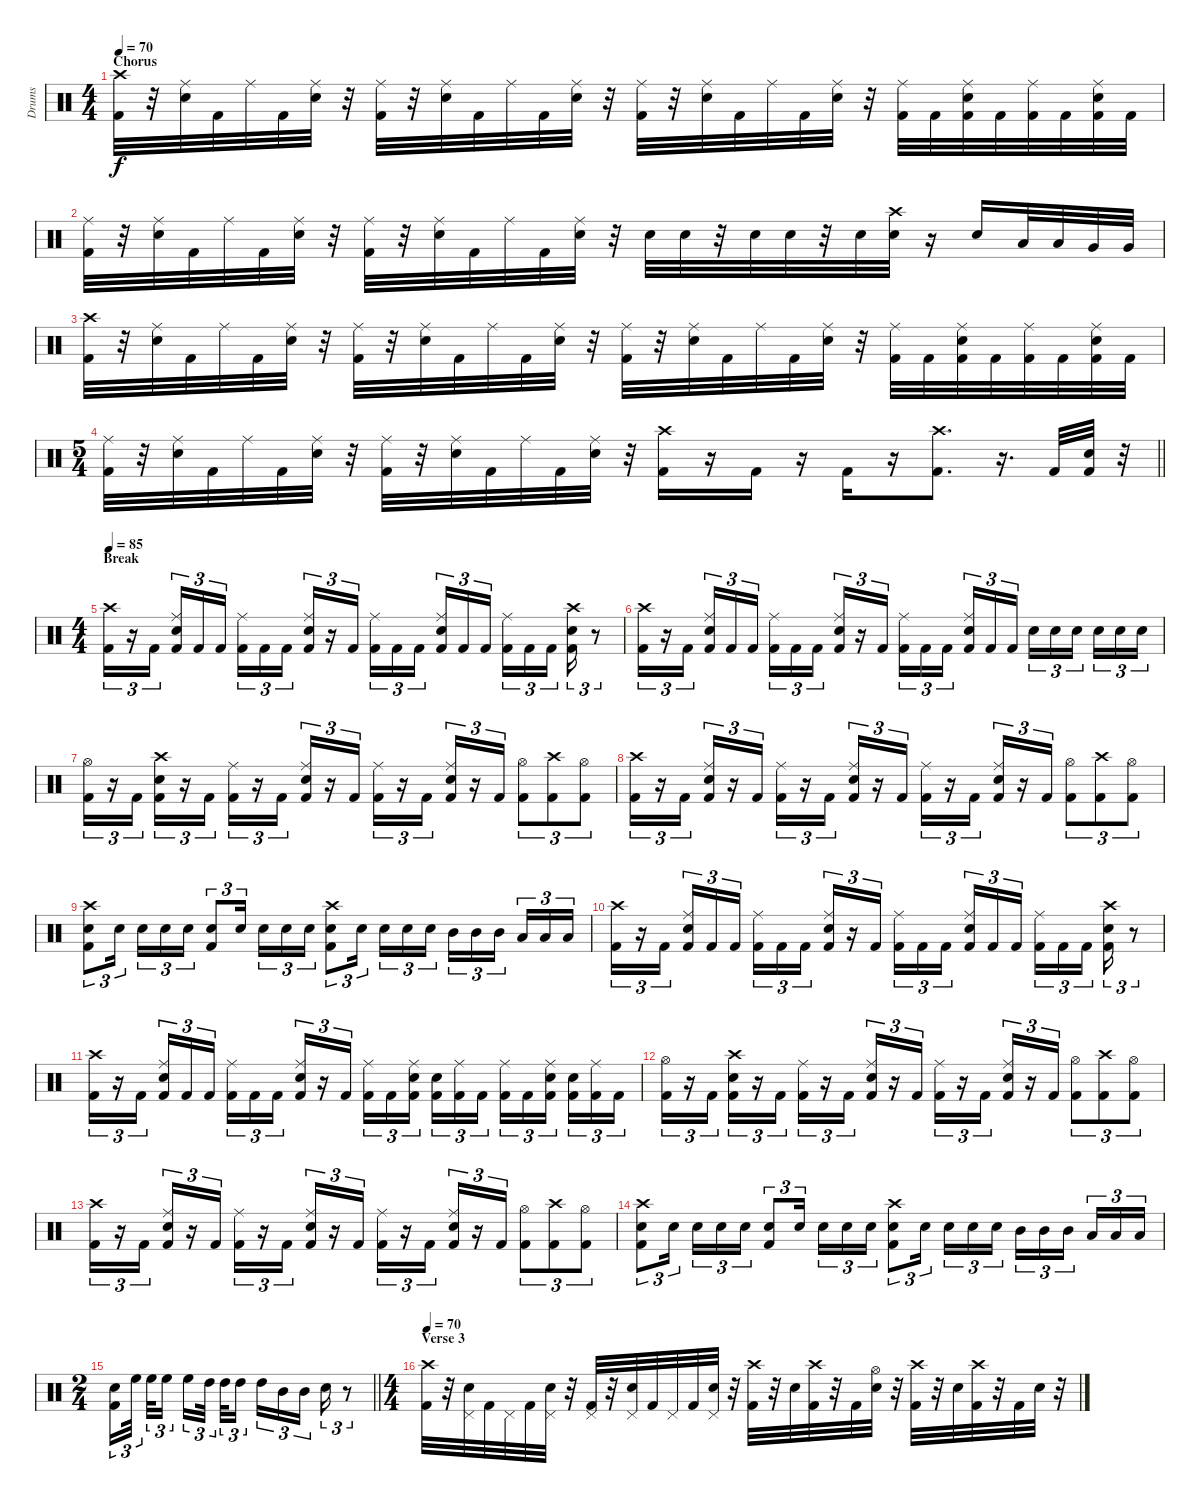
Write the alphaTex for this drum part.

\track ("Drums" "Drums") {instrument percussion}
\staff {score}
\articulation defaults
\ts (4 4)
\section ("" "Chorus")
\tempo 70
\clef neutral
\ks c
("Crash high (hit)" "Kick (hit) 2").32{dy f} r.32 ("Ride (middle)" "Snare (hit) 2").32 "Kick (hit) 2".32 "Ride (middle)".32 "Kick (hit) 2".32 ("Ride (middle)" "Snare (hit) 2").32 r.32 ("Ride (middle)" "Kick (hit) 2").32 r.32 ("Ride (middle)" "Snare (hit) 2").32 "Kick (hit) 2".32 "Ride (middle)".32 "Kick (hit) 2".32 ("Ride (middle)" "Snare (hit) 2").32 r.32 ("Ride (middle)" "Kick (hit) 2").32 r.32 ("Ride (middle)" "Snare (hit) 2").32 "Kick (hit) 2".32 "Ride (middle)".32 "Kick (hit) 2".32 ("Ride (middle)" "Snare (hit) 2").32 r.32 ("Ride (middle)" "Kick (hit) 2").32 "Kick (hit) 2".32 ("Ride (middle)" "Snare (hit) 2" "Kick (hit) 2").32 "Kick (hit) 2".32 ("Ride (middle)" "Kick (hit) 2").32 "Kick (hit) 2".32 ("Ride (middle)" "Snare (hit) 2" "Kick (hit) 2").32 "Kick (hit) 2".32 |
("Ride (middle)" "Kick (hit) 2").32 r.32 ("Ride (middle)" "Snare (hit) 2").32 "Kick (hit) 2".32 "Ride (middle)".32 "Kick (hit) 2".32 ("Ride (middle)" "Snare (hit) 2").32 r.32 ("Ride (middle)" "Kick (hit) 2").32 r.32 ("Ride (middle)" "Snare (hit) 2").32 "Kick (hit) 2".32 "Ride (middle)".32 "Kick (hit) 2".32 ("Ride (middle)" "Snare (hit) 2").32 r.32 "Snare (hit) 2".32 "Snare (hit) 2".32 r.32 "Snare (hit) 2".32 "Snare (hit) 2".32 r.32 "Snare (hit) 2".32 ("Crash high (hit)" "Snare (hit) 2").32 r.16 "Snare (hit) 2".16 "Low Tom (hit)".32 "Low Tom (hit)".32 "Very Low Tom (hit)".32 "Very Low Tom (hit)".32 |
("Crash high (hit)" "Kick (hit) 2").32 r.32 ("Ride (middle)" "Snare (hit) 2").32 "Kick (hit) 2".32 "Ride (middle)".32 "Kick (hit) 2".32 ("Ride (middle)" "Snare (hit) 2").32 r.32 ("Ride (middle)" "Kick (hit) 2").32 r.32 ("Ride (middle)" "Snare (hit) 2").32 "Kick (hit) 2".32 "Ride (middle)".32 "Kick (hit) 2".32 ("Ride (middle)" "Snare (hit) 2").32 r.32 ("Ride (middle)" "Kick (hit) 2").32 r.32 ("Ride (middle)" "Snare (hit) 2").32 "Kick (hit) 2".32 "Ride (middle)".32 "Kick (hit) 2".32 ("Ride (middle)" "Snare (hit) 2").32 r.32 ("Ride (middle)" "Kick (hit) 2").32 "Kick (hit) 2".32 ("Ride (middle)" "Snare (hit) 2" "Kick (hit) 2").32 "Kick (hit) 2".32 ("Ride (middle)" "Kick (hit) 2").32 "Kick (hit) 2".32 ("Ride (middle)" "Snare (hit) 2" "Kick (hit) 2").32 "Kick (hit) 2".32 |
\ts (5 4)
\barLineRight lightlight
("Ride (middle)" "Kick (hit) 2").32 r.32 ("Ride (middle)" "Snare (hit) 2").32 "Kick (hit) 2".32 "Ride (middle)".32 "Kick (hit) 2".32 ("Ride (middle)" "Snare (hit) 2").32 r.32 ("Ride (middle)" "Kick (hit) 2").32 r.32 ("Ride (middle)" "Snare (hit) 2").32 "Kick (hit) 2".32 "Ride (middle)".32 "Kick (hit) 2".32 ("Ride (middle)" "Snare (hit) 2").32 r.32 ("Crash high (hit)" "Kick (hit) 2").16 r.16 "Kick (hit) 2".16 r.16 "Kick (hit) 2".16 r.16 ("Crash high (hit)" "Kick (hit) 2").8{d} r.16{d} "Kick (hit) 2".32 ("Snare (hit) 2" "Kick (hit) 2").32 r.32 |
\ts (4 4)
\section ("" "Break")
\tempo 85
("Crash high (hit)" "Kick (hit) 2").16{tu (3 2)} r.16{tu (3 2)} "Kick (hit) 2".16{tu (3 2) beam splitsecondary} ("Ride (middle)" "Snare (hit) 2" "Kick (hit) 2").16{tu (3 2)} "Kick (hit) 2".16{tu (3 2)} "Kick (hit) 2".16{tu (3 2)} ("Ride (middle)" "Kick (hit) 2").16{tu (3 2)} "Kick (hit) 2".16{tu (3 2)} "Kick (hit) 2".16{tu (3 2) beam splitsecondary} ("Ride (middle)" "Snare (hit) 2" "Kick (hit) 2").16{tu (3 2)} r.16{tu (3 2)} "Kick (hit) 2".16{tu (3 2)} ("Ride (middle)" "Kick (hit) 2").16{tu (3 2)} "Kick (hit) 2".16{tu (3 2)} "Kick (hit) 2".16{tu (3 2) beam splitsecondary} ("Ride (middle)" "Snare (hit) 2" "Kick (hit) 2").16{tu (3 2)} "Kick (hit) 2".16{tu (3 2)} "Kick (hit) 2".16{tu (3 2)} ("Ride (middle)" "Kick (hit) 2").16{tu (3 2)} "Kick (hit) 2".16{tu (3 2)} "Kick (hit) 2".16{tu (3 2) beam splitsecondary} ("Crash high (hit)" "Snare (hit) 2" "Kick (hit) 2").16{tu (3 2)} r.8{tu (3 2)} |
("Crash high (hit)" "Kick (hit) 2").16{tu (3 2)} r.16{tu (3 2)} "Kick (hit) 2".16{tu (3 2) beam splitsecondary} ("Ride (middle)" "Snare (hit) 2" "Kick (hit) 2").16{tu (3 2)} "Kick (hit) 2".16{tu (3 2)} "Kick (hit) 2".16{tu (3 2)} ("Ride (middle)" "Kick (hit) 2").16{tu (3 2)} "Kick (hit) 2".16{tu (3 2)} "Kick (hit) 2".16{tu (3 2) beam splitsecondary} ("Ride (middle)" "Snare (hit) 2" "Kick (hit) 2").16{tu (3 2)} r.16{tu (3 2)} "Kick (hit) 2".16{tu (3 2)} ("Ride (middle)" "Kick (hit) 2").16{tu (3 2)} "Kick (hit) 2".16{tu (3 2)} "Kick (hit) 2".16{tu (3 2) beam splitsecondary} ("Ride (middle)" "Snare (hit) 2" "Kick (hit) 2").16{tu (3 2)} "Kick (hit) 2".16{tu (3 2)} "Kick (hit) 2".16{tu (3 2)} "Snare (hit) 2".16{tu (3 2)} "Snare (hit) 2".16{tu (3 2)} "Snare (hit) 2".16{tu (3 2) beam splitsecondary} "Snare (hit) 2".16{tu (3 2)} "Snare (hit) 2".16{tu (3 2)} "Snare (hit) 2".16{tu (3 2)} |
("Hi-Hat (open)" "Kick (hit) 2").16{tu (3 2)} r.16{tu (3 2)} "Kick (hit) 2".16{tu (3 2)} ("Crash high (hit)" "Snare (hit) 2" "Kick (hit) 2").16{tu (3 2)} r.16{tu (3 2)} "Kick (hit) 2".16{tu (3 2)} ("Ride (middle)" "Kick (hit) 2").16{tu (3 2)} r.16{tu (3 2)} "Kick (hit) 2".16{tu (3 2)} ("Ride (middle)" "Snare (hit) 2" "Kick (hit) 2").16{tu (3 2)} r.16{tu (3 2)} "Kick (hit) 2".16{tu (3 2)} ("Ride (middle)" "Kick (hit) 2").16{tu (3 2)} r.16{tu (3 2)} "Kick (hit) 2".16{tu (3 2)} ("Ride (middle)" "Snare (hit) 2" "Kick (hit) 2").16{tu (3 2)} r.16{tu (3 2)} "Kick (hit) 2".16{tu (3 2)} ("Hi-Hat (open)" "Kick (hit) 2").8{tu (3 2)} ("Crash high (hit)" "Kick (hit) 2").8{tu (3 2)} ("Hi-Hat (open)" "Kick (hit) 2").8{tu (3 2)} |
("Crash high (hit)" "Kick (hit) 2").16{tu (3 2)} r.16{tu (3 2)} "Kick (hit) 2".16{tu (3 2)} ("Ride (middle)" "Snare (hit) 2" "Kick (hit) 2").16{tu (3 2)} r.16{tu (3 2)} "Kick (hit) 2".16{tu (3 2)} ("Ride (middle)" "Kick (hit) 2").16{tu (3 2)} r.16{tu (3 2)} "Kick (hit) 2".16{tu (3 2)} ("Ride (middle)" "Snare (hit) 2" "Kick (hit) 2").16{tu (3 2)} r.16{tu (3 2)} "Kick (hit) 2".16{tu (3 2)} ("Ride (middle)" "Kick (hit) 2").16{tu (3 2)} r.16{tu (3 2)} "Kick (hit) 2".16{tu (3 2)} ("Ride (middle)" "Snare (hit) 2" "Kick (hit) 2").16{tu (3 2)} r.16{tu (3 2)} "Kick (hit) 2".16{tu (3 2)} ("Hi-Hat (open)" "Kick (hit) 2").8{tu (3 2)} ("Crash high (hit)" "Kick (hit) 2").8{tu (3 2)} ("Hi-Hat (open)" "Kick (hit) 2").8{tu (3 2)} |
("Crash high (hit)" "Snare (hit) 2" "Kick (hit) 2").8{tu (3 2)} "Snare (hit) 2".16{tu (3 2) beam splitsecondary} "Snare (hit) 2".16{tu (3 2)} "Snare (hit) 2".16{tu (3 2)} "Snare (hit) 2".16{tu (3 2)} ("Snare (hit) 2" "Kick (hit) 2").8{tu (3 2)} "Snare (hit) 2".16{tu (3 2) beam splitsecondary} "Snare (hit) 2".16{tu (3 2)} "Snare (hit) 2".16{tu (3 2)} "Snare (hit) 2".16{tu (3 2)} ("Crash high (hit)" "Snare (hit) 2" "Kick (hit) 2").8{tu (3 2)} "Snare (hit) 2".16{tu (3 2) beam splitsecondary} "Snare (hit) 2".16{tu (3 2)} "Snare (hit) 2".16{tu (3 2)} "Snare (hit) 2".16{tu (3 2)} "Mid Tom (hit)".16{tu (3 2)} "Mid Tom (hit)".16{tu (3 2)} "Mid Tom (hit)".16{tu (3 2) beam splitsecondary} "Low Tom (hit)".16{tu (3 2)} "Low Tom (hit)".16{tu (3 2)} "Low Tom (hit)".16{tu (3 2)} |
("Crash high (hit)" "Kick (hit) 2").16{tu (3 2)} r.16{tu (3 2)} "Kick (hit) 2".16{tu (3 2) beam splitsecondary} ("Ride (middle)" "Snare (hit) 2" "Kick (hit) 2").16{tu (3 2)} "Kick (hit) 2".16{tu (3 2)} "Kick (hit) 2".16{tu (3 2)} ("Ride (middle)" "Kick (hit) 2").16{tu (3 2)} "Kick (hit) 2".16{tu (3 2)} "Kick (hit) 2".16{tu (3 2) beam splitsecondary} ("Ride (middle)" "Snare (hit) 2" "Kick (hit) 2").16{tu (3 2)} r.16{tu (3 2)} "Kick (hit) 2".16{tu (3 2)} ("Ride (middle)" "Kick (hit) 2").16{tu (3 2)} "Kick (hit) 2".16{tu (3 2)} "Kick (hit) 2".16{tu (3 2) beam splitsecondary} ("Ride (middle)" "Snare (hit) 2" "Kick (hit) 2").16{tu (3 2)} "Kick (hit) 2".16{tu (3 2)} "Kick (hit) 2".16{tu (3 2)} ("Ride (middle)" "Kick (hit) 2").16{tu (3 2)} "Kick (hit) 2".16{tu (3 2)} "Kick (hit) 2".16{tu (3 2) beam splitsecondary} ("Crash high (hit)" "Snare (hit) 2" "Kick (hit) 2").16{tu (3 2)} r.8{tu (3 2)} |
("Crash high (hit)" "Kick (hit) 2").16{tu (3 2)} r.16{tu (3 2)} "Kick (hit) 2".16{tu (3 2) beam splitsecondary} ("Ride (middle)" "Snare (hit) 2" "Kick (hit) 2").16{tu (3 2)} "Kick (hit) 2".16{tu (3 2)} "Kick (hit) 2".16{tu (3 2)} ("Ride (middle)" "Kick (hit) 2").16{tu (3 2)} "Kick (hit) 2".16{tu (3 2)} "Kick (hit) 2".16{tu (3 2) beam splitsecondary} ("Ride (middle)" "Snare (hit) 2" "Kick (hit) 2").16{tu (3 2)} r.16{tu (3 2)} "Kick (hit) 2".16{tu (3 2)} ("Ride (middle)" "Kick (hit) 2").16{tu (3 2)} "Kick (hit) 2".16{tu (3 2)} ("Ride (middle)" "Snare (hit) 2" "Kick (hit) 2").16{tu (3 2) beam splitsecondary} ("Snare (hit) 2" "Kick (hit) 2").16{tu (3 2)} ("Ride (middle)" "Kick (hit) 2").16{tu (3 2)} "Kick (hit) 2".16{tu (3 2)} ("Ride (middle)" "Kick (hit) 2").16{tu (3 2)} "Kick (hit) 2".16{tu (3 2)} ("Ride (middle)" "Snare (hit) 2" "Kick (hit) 2").16{tu (3 2) beam splitsecondary} ("Snare (hit) 2" "Kick (hit) 2").16{tu (3 2)} ("Ride (middle)" "Kick (hit) 2").16{tu (3 2)} "Kick (hit) 2".16{tu (3 2)} |
("Hi-Hat (open)" "Kick (hit) 2").16{tu (3 2)} r.16{tu (3 2)} "Kick (hit) 2".16{tu (3 2)} ("Crash high (hit)" "Snare (hit) 2" "Kick (hit) 2").16{tu (3 2)} r.16{tu (3 2)} "Kick (hit) 2".16{tu (3 2)} ("Ride (middle)" "Kick (hit) 2").16{tu (3 2)} r.16{tu (3 2)} "Kick (hit) 2".16{tu (3 2)} ("Ride (middle)" "Snare (hit) 2" "Kick (hit) 2").16{tu (3 2)} r.16{tu (3 2)} "Kick (hit) 2".16{tu (3 2)} ("Ride (middle)" "Kick (hit) 2").16{tu (3 2)} r.16{tu (3 2)} "Kick (hit) 2".16{tu (3 2)} ("Ride (middle)" "Snare (hit) 2" "Kick (hit) 2").16{tu (3 2)} r.16{tu (3 2)} "Kick (hit) 2".16{tu (3 2)} ("Hi-Hat (open)" "Kick (hit) 2").8{tu (3 2)} ("Crash high (hit)" "Kick (hit) 2").8{tu (3 2)} ("Hi-Hat (open)" "Kick (hit) 2").8{tu (3 2)} |
("Crash high (hit)" "Kick (hit) 2").16{tu (3 2)} r.16{tu (3 2)} "Kick (hit) 2".16{tu (3 2)} ("Ride (middle)" "Snare (hit) 2" "Kick (hit) 2").16{tu (3 2)} r.16{tu (3 2)} "Kick (hit) 2".16{tu (3 2)} ("Ride (middle)" "Kick (hit) 2").16{tu (3 2)} r.16{tu (3 2)} "Kick (hit) 2".16{tu (3 2)} ("Ride (middle)" "Snare (hit) 2" "Kick (hit) 2").16{tu (3 2)} r.16{tu (3 2)} "Kick (hit) 2".16{tu (3 2)} ("Ride (middle)" "Kick (hit) 2").16{tu (3 2)} r.16{tu (3 2)} "Kick (hit) 2".16{tu (3 2)} ("Ride (middle)" "Snare (hit) 2" "Kick (hit) 2").16{tu (3 2)} r.16{tu (3 2)} "Kick (hit) 2".16{tu (3 2)} ("Hi-Hat (open)" "Kick (hit) 2").8{tu (3 2)} ("Crash high (hit)" "Kick (hit) 2").8{tu (3 2)} ("Hi-Hat (open)" "Kick (hit) 2").8{tu (3 2)} |
("Crash high (hit)" "Snare (hit) 2" "Kick (hit) 2").8{tu (3 2)} "Snare (hit) 2".16{tu (3 2) beam splitsecondary} "Snare (hit) 2".16{tu (3 2)} "Snare (hit) 2".16{tu (3 2)} "Snare (hit) 2".16{tu (3 2)} ("Snare (hit) 2" "Kick (hit) 2").8{tu (3 2)} "Snare (hit) 2".16{tu (3 2) beam splitsecondary} "Snare (hit) 2".16{tu (3 2)} "Snare (hit) 2".16{tu (3 2)} "Snare (hit) 2".16{tu (3 2)} ("Crash high (hit)" "Snare (hit) 2" "Kick (hit) 2").8{tu (3 2)} "Snare (hit) 2".16{tu (3 2) beam splitsecondary} "Snare (hit) 2".16{tu (3 2)} "Snare (hit) 2".16{tu (3 2)} "Snare (hit) 2".16{tu (3 2)} "Mid Tom (hit)".16{tu (3 2)} "Mid Tom (hit)".16{tu (3 2)} "Mid Tom (hit)".16{tu (3 2) beam splitsecondary} "Low Tom (hit)".16{tu (3 2)} "Low Tom (hit)".16{tu (3 2)} "Low Tom (hit)".16{tu (3 2)} |
\ts (2 4)
\barLineRight lightlight
("Snare (hit) 2" "Kick (hit) 2").16{tu (3 2)} "High Floor Tom (hit)".32{tu (3 2) beam splitsecondary} "High Floor Tom (hit)".32{tu (3 2)} "High Floor Tom (hit)".16{tu (3 2) beam splitsecondary} "High Floor Tom (hit)".16{tu (3 2)} "High Tom (hit)".32{tu (3 2) beam splitsecondary} "High Tom (hit)".32{tu (3 2)} "High Tom (hit)".16{tu (3 2)} "High Tom (hit)".16{tu (3 2)} "Mid Tom (hit)".16{tu (3 2)} "Mid Tom (hit)".16{tu (3 2) beam splitsecondary} "Snare (hit) 2".16{tu (3 2)} r.8{tu (3 2)} |
\ts (4 4)
\section ("" "Verse 3")
\tempo 70
("Crash high (hit)" "Kick (hit) 2").32 r.32 ("Pedal Hi-Hat (hit)" "Snare (hit) 2").32 "Kick (hit) 2".32 "Pedal Hi-Hat (hit)".32 "Kick (hit) 2".32 ("Pedal Hi-Hat (hit)" "Snare (hit) 2").32 r.32 ("Pedal Hi-Hat (hit)" "Kick (hit) 2").32 r.32 ("Pedal Hi-Hat (hit)" "Snare (hit) 2").32 "Kick (hit) 2".32 "Pedal Hi-Hat (hit)".32 "Kick (hit) 2".32 ("Pedal Hi-Hat (hit)" "Snare (hit) 2").32 r.32 ("Crash high (hit)" "Kick (hit) 2").32 r.32 "Snare (hit) 2".32 ("Crash high (hit)" "Kick (hit) 2").32 r.32 "Kick (hit) 2".32 ("Hi-Hat (open)" "Snare (hit) 2").32 r.32 ("Crash high (hit)" "Kick (hit) 2").32 r.32 "Snare (hit) 2".32 ("Crash high (hit)" "Kick (hit) 2").32 r.32 "Kick (hit) 2".32 "Snare (hit) 2".32 r.32
